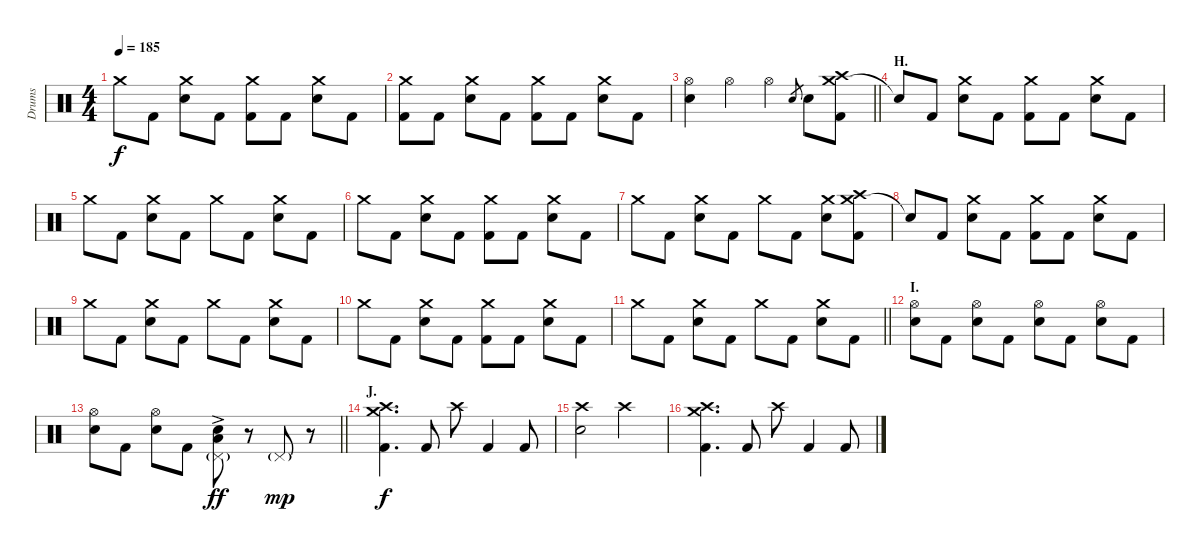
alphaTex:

\track ("Drums" "Drums") {instrument percussion}
\staff {score}
\articulation defaults
\ts (4 4)
\tempo 185
\clef neutral
\ks c "Crash medium (hit)".8{dy f} "Kick (hit) 2".8
("Crash medium (hit)" "Electric Snare (hit)").8 "Kick (hit) 2".8 ("Crash medium (hit)" "Kick (hit) 2").8 "Kick (hit) 2".8 ("Crash medium (hit)" "Electric Snare (hit)").8 "Kick (hit) 2".8 |
("Crash medium (hit)" "Kick (hit) 2").8 "Kick (hit) 2".8 ("Crash medium (hit)" "Electric Snare (hit)").8 "Kick (hit) 2".8 ("Crash medium (hit)" "Kick (hit) 2").8 "Kick (hit) 2".8 ("Crash medium (hit)" "Electric Snare (hit)").8 "Kick (hit) 2".8 |
\barLineRight lightlight
("Hi-Hat (open)" "Electric Snare (hit)").4 "Hi-Hat (open)".4 "Hi-Hat (open)".4 "Electric Snare (hit)".8{gr} "Electric Snare (hit)".8 ("Crash medium (hit)" "Crash high (hit)" "Kick (hit) 2").8 |
\section ("" "H.")
"Snare (hit)"{t}.8 "Kick (hit) 2".8 ("Crash medium (hit)" "Electric Snare (hit)").8 "Kick (hit) 2".8 ("Crash medium (hit)" "Kick (hit) 2").8 "Kick (hit) 2".8 ("Crash medium (hit)" "Electric Snare (hit)").8 "Kick (hit) 2".8 |
"Crash medium (hit)".8 "Kick (hit) 2".8 ("Crash medium (hit)" "Electric Snare (hit)").8 "Kick (hit) 2".8 "Crash medium (hit)".8 "Kick (hit) 2".8 ("Crash medium (hit)" "Electric Snare (hit)").8 "Kick (hit) 2".8 |
"Crash medium (hit)".8 "Kick (hit) 2".8 ("Crash medium (hit)" "Electric Snare (hit)").8 "Kick (hit) 2".8 ("Crash medium (hit)" "Kick (hit) 2").8 "Kick (hit) 2".8 ("Crash medium (hit)" "Electric Snare (hit)").8 "Kick (hit) 2".8 |
"Crash medium (hit)".8 "Kick (hit) 2".8 ("Crash medium (hit)" "Electric Snare (hit)").8 "Kick (hit) 2".8 "Crash medium (hit)".8 "Kick (hit) 2".8 ("Crash medium (hit)" "Electric Snare (hit)").8 ("Crash medium (hit)" "Crash high (hit)" "Kick (hit) 2").8 |
"Snare (hit)"{t}.8 "Kick (hit) 2".8 ("Crash medium (hit)" "Electric Snare (hit)").8 "Kick (hit) 2".8 ("Crash medium (hit)" "Kick (hit) 2").8 "Kick (hit) 2".8 ("Crash medium (hit)" "Electric Snare (hit)").8 "Kick (hit) 2".8 |
"Crash medium (hit)".8 "Kick (hit) 2".8 ("Crash medium (hit)" "Electric Snare (hit)").8 "Kick (hit) 2".8 "Crash medium (hit)".8 "Kick (hit) 2".8 ("Crash medium (hit)" "Electric Snare (hit)").8 "Kick (hit) 2".8 |
"Crash medium (hit)".8 "Kick (hit) 2".8 ("Crash medium (hit)" "Electric Snare (hit)").8 "Kick (hit) 2".8 ("Crash medium (hit)" "Kick (hit) 2").8 "Kick (hit) 2".8 ("Crash medium (hit)" "Electric Snare (hit)").8 "Kick (hit) 2".8 |
\barLineRight lightlight "Crash medium (hit)".8 "Kick (hit) 2".8
("Crash medium (hit)" "Electric Snare (hit)").8 "Kick (hit) 2".8 "Crash medium (hit)".8 "Kick (hit) 2".8 ("Crash medium (hit)" "Electric Snare (hit)").8 "Kick (hit) 2".8 |
\section ("" "I.")
("Hi-Hat (open)" "Electric Snare (hit)").8 "Kick (hit) 2".8 ("Hi-Hat (open)" "Electric Snare (hit)").8 "Kick (hit) 2".8 ("Hi-Hat (open)" "Electric Snare (hit)").8 "Kick (hit) 2".8 ("Hi-Hat (open)" "Electric Snare (hit)").8 "Kick (hit) 2".8 |
\barLineRight lightlight
("Hi-Hat (open)" "Electric Snare (hit)").8 "Kick (hit) 2".8 ("Hi-Hat (open)" "Electric Snare (hit)").8 "Kick (hit) 2".8 ("Pedal Hi-Hat (hit)"{g} "Electric Snare (hit)" "Low Floor Tom (hit)"{ac}).8{dy ff} r.8 "Pedal Hi-Hat (hit)"{g}.8{dy mp} r.8 |
\section ("" "J.")
("Crash medium (hit)" "Crash high (hit)" "Kick (hit) 2").4{d dy f} "Kick (hit) 2".8 "Crash high (hit)".8 "Kick (hit) 2".4 "Kick (hit) 2".8 |
("Crash high (hit)" "Electric Snare (hit)").2 "Crash high (hit)".2 |
("Crash medium (hit)" "Crash high (hit)" "Kick (hit) 2").4{d} "Kick (hit) 2".8 "Crash high (hit)".8 "Kick (hit) 2".4 "Kick (hit) 2".8
